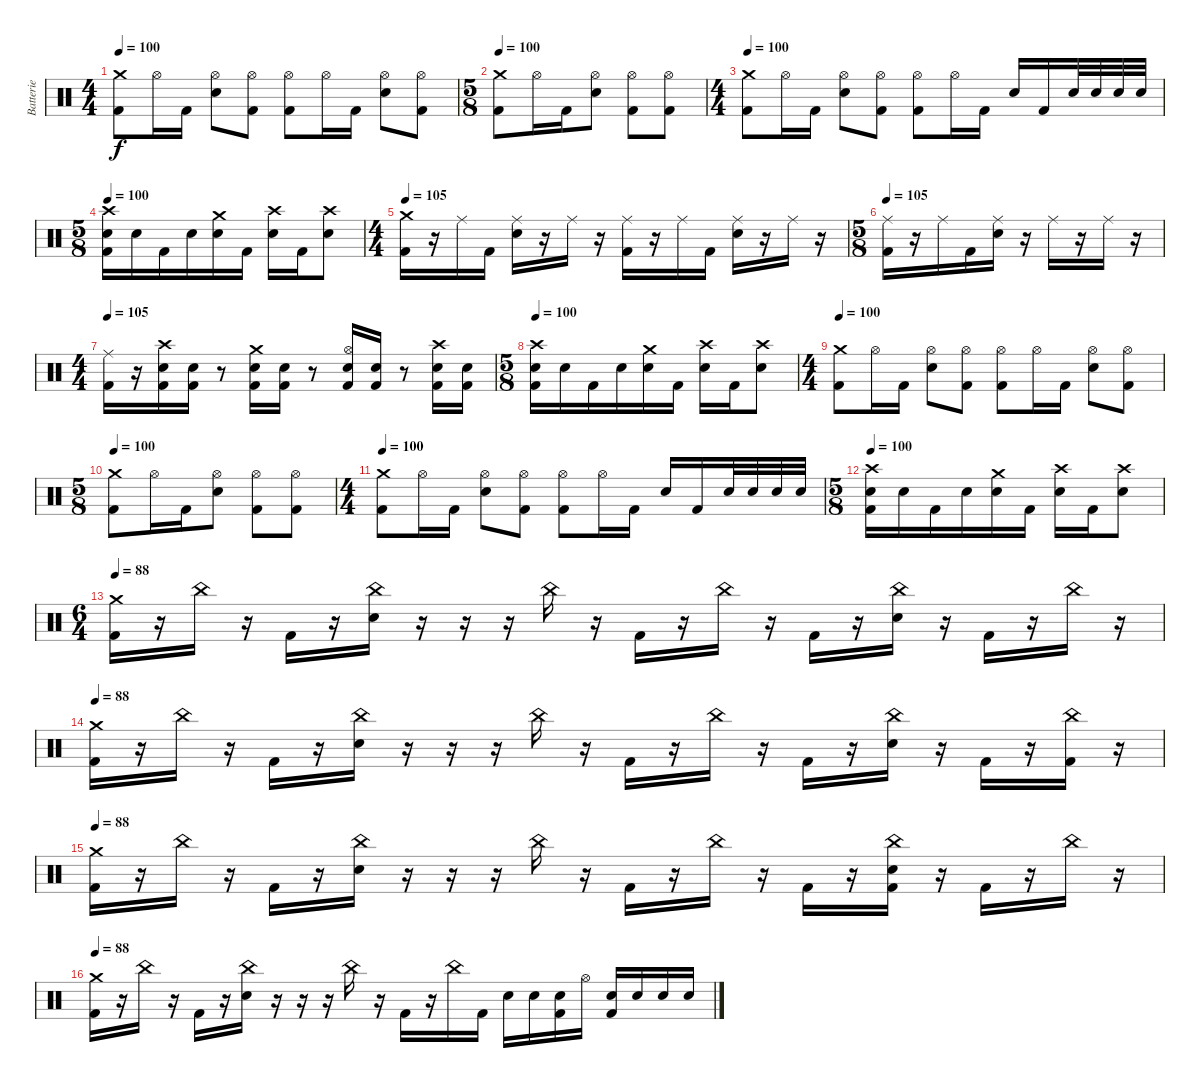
\track ("Batterie" "Batterie") {instrument percussion}
\staff {score}
\articulation defaults
\ts (4 4)
\tempo 100
\clef neutral
\ks c
("Crash medium (hit)" "Kick (hit) 2").8{dy f} "Hi-Hat (open)".16 "Kick (hit) 2".16 ("Hi-Hat (open)" "Electric Snare (hit)").8 ("Hi-Hat (open)" "Kick (hit) 2").8 ("Hi-Hat (open)" "Kick (hit) 2").8 "Hi-Hat (open)".16 "Kick (hit) 2".16 ("Hi-Hat (open)" "Electric Snare (hit)").8 ("Hi-Hat (open)" "Kick (hit) 2").8 |
\ts (5 8)
\tempo 100
("Crash medium (hit)" "Kick (hit) 2").8 "Hi-Hat (open)".16 "Kick (hit) 2".16 ("Hi-Hat (open)" "Electric Snare (hit)").8 ("Hi-Hat (open)" "Kick (hit) 2").8 ("Hi-Hat (open)" "Kick (hit) 2").8 |
\ts (4 4)
\tempo 100
("Crash medium (hit)" "Kick (hit) 2").8 "Hi-Hat (open)".16 "Kick (hit) 2".16 ("Hi-Hat (open)" "Electric Snare (hit)").8 ("Hi-Hat (open)" "Kick (hit) 2").8 ("Hi-Hat (open)" "Kick (hit) 2").8 "Hi-Hat (open)".16 "Kick (hit) 2".16 "Electric Snare (hit)".16 "Kick (hit) 2".16 "Electric Snare (hit)".32 "Electric Snare (hit)".32 "Electric Snare (hit)".32 "Electric Snare (hit)".32 |
\ts (5 8)
\tempo 100
("Crash high (hit)" "Electric Snare (hit)" "Kick (hit) 2").16 "Electric Snare (hit)".16 "Kick (hit) 2".16 "Electric Snare (hit)".16 ("Crash medium (hit)" "Electric Snare (hit)").16 "Kick (hit) 2".16 ("Crash high (hit)" "Electric Snare (hit)").16 "Kick (hit) 2".16 ("Crash high (hit)" "Electric Snare (hit)").8 |
\ts (4 4)
\tempo 105
("Crash medium (hit)" "Kick (hit) 2").16 r.16 "Ride (middle)".16 "Kick (hit) 2".16 ("Ride (middle)" "Electric Snare (hit)").16 r.16 "Ride (middle)".16 r.16 ("Ride (middle)" "Kick (hit) 2").16 r.16 "Ride (middle)".16 "Kick (hit) 2".16 ("Ride (middle)" "Electric Snare (hit)").16 r.16 "Ride (middle)".16 r.16 |
\ts (5 8)
\tempo 105
("Ride (middle)" "Kick (hit) 2").16 r.16 "Ride (middle)".16 "Kick (hit) 2".16 ("Ride (middle)" "Electric Snare (hit)").16 r.16 "Ride (middle)".16 r.16 "Ride (middle)".16 r.16 |
\ts (4 4)
\tempo 105
("Ride (middle)" "Kick (hit) 2").16 r.16 ("Crash high (hit)" "Electric Snare (hit)" "Kick (hit) 2").16 ("Electric Snare (hit)" "Kick (hit) 2").16 r.8 ("Crash medium (hit)" "Electric Snare (hit)" "Kick (hit) 2").16 ("Electric Snare (hit)" "Kick (hit) 2").16 r.8 ("Hi-Hat (open)" "Electric Snare (hit)" "Kick (hit) 2").16 ("Electric Snare (hit)" "Kick (hit) 2").16 r.8 ("Crash high (hit)" "Electric Snare (hit)" "Kick (hit) 2").16 ("Electric Snare (hit)" "Kick (hit) 2").16 |
\ts (5 8)
\tempo 100
("Crash high (hit)" "Electric Snare (hit)" "Kick (hit) 2").16 "Electric Snare (hit)".16 "Kick (hit) 2".16 "Electric Snare (hit)".16 ("Crash medium (hit)" "Electric Snare (hit)").16 "Kick (hit) 2".16 ("Crash high (hit)" "Electric Snare (hit)").16 "Kick (hit) 2".16 ("Crash high (hit)" "Electric Snare (hit)").8 |
\ts (4 4)
\tempo 100
("Crash medium (hit)" "Kick (hit) 2").8 "Hi-Hat (open)".16 "Kick (hit) 2".16 ("Hi-Hat (open)" "Electric Snare (hit)").8 ("Hi-Hat (open)" "Kick (hit) 2").8 ("Hi-Hat (open)" "Kick (hit) 2").8 "Hi-Hat (open)".16 "Kick (hit) 2".16 ("Hi-Hat (open)" "Electric Snare (hit)").8 ("Hi-Hat (open)" "Kick (hit) 2").8 |
\ts (5 8)
\tempo 100
("Crash medium (hit)" "Kick (hit) 2").8 "Hi-Hat (open)".16 "Kick (hit) 2".16 ("Hi-Hat (open)" "Electric Snare (hit)").8 ("Hi-Hat (open)" "Kick (hit) 2").8 ("Hi-Hat (open)" "Kick (hit) 2").8 |
\ts (4 4)
\tempo 100
("Crash medium (hit)" "Kick (hit) 2").8 "Hi-Hat (open)".16 "Kick (hit) 2".16 ("Hi-Hat (open)" "Electric Snare (hit)").8 ("Hi-Hat (open)" "Kick (hit) 2").8 ("Hi-Hat (open)" "Kick (hit) 2").8 "Hi-Hat (open)".16 "Kick (hit) 2".16 "Electric Snare (hit)".16 "Kick (hit) 2".16 "Electric Snare (hit)".32 "Electric Snare (hit)".32 "Electric Snare (hit)".32 "Electric Snare (hit)".32 |
\ts (5 8)
\tempo 100
("Crash high (hit)" "Electric Snare (hit)" "Kick (hit) 2").16 "Electric Snare (hit)".16 "Kick (hit) 2".16 "Electric Snare (hit)".16 ("Crash medium (hit)" "Electric Snare (hit)").16 "Kick (hit) 2".16 ("Crash high (hit)" "Electric Snare (hit)").16 "Kick (hit) 2".16 ("Crash high (hit)" "Electric Snare (hit)").8 |
\ts (6 4)
\tempo 100
\tempo 88
("Crash medium (hit)" "Kick (hit) 2").16 r.16 "China (hit)".16 r.16 "Kick (hit) 2".16 r.16 ("China (hit)" "Electric Snare (hit)").16 r.16 r.16 r.16 "China (hit)".16 r.16 "Kick (hit) 2".16 r.16 "China (hit)".16 r.16 "Kick (hit) 2".16 r.16 ("China (hit)" "Electric Snare (hit)").16 r.16 "Kick (hit) 2".16 r.16 "China (hit)".16 r.16 |
\tempo 100
\tempo 88
("Crash medium (hit)" "Kick (hit) 2").16 r.16 "China (hit)".16 r.16 "Kick (hit) 2".16 r.16 ("China (hit)" "Electric Snare (hit)").16 r.16 r.16 r.16 "China (hit)".16 r.16 "Kick (hit) 2".16 r.16 "China (hit)".16 r.16 "Kick (hit) 2".16 r.16 ("China (hit)" "Electric Snare (hit)").16 r.16 "Kick (hit) 2".16 r.16 ("China (hit)" "Kick (hit) 2").16 r.16 |
\tempo 100
\tempo 88
("Crash medium (hit)" "Kick (hit) 2").16 r.16 "China (hit)".16 r.16 "Kick (hit) 2".16 r.16 ("China (hit)" "Electric Snare (hit)").16 r.16 r.16 r.16 "China (hit)".16 r.16 "Kick (hit) 2".16 r.16 "China (hit)".16 r.16 "Kick (hit) 2".16 r.16 ("China (hit)" "Electric Snare (hit)" "Kick (hit) 2").16 r.16 "Kick (hit) 2".16 r.16 "China (hit)".16 r.16 |
\tempo 100
\tempo 88
("Crash medium (hit)" "Kick (hit) 2").16 r.16 "China (hit)".16 r.16 "Kick (hit) 2".16 r.16 ("China (hit)" "Electric Snare (hit)").16 r.16 r.16 r.16 "China (hit)".16 r.16 "Kick (hit) 2".16 r.16 "China (hit)".16 "Kick (hit) 2".16 "Electric Snare (hit)".16 "Electric Snare (hit)".16 ("Electric Snare (hit)" "Kick (hit) 2").16 "Hi-Hat (open)".16 ("Electric Snare (hit)" "Kick (hit) 2").16 "Electric Snare (hit)".16 "Electric Snare (hit)".16 "Electric Snare (hit)".16
